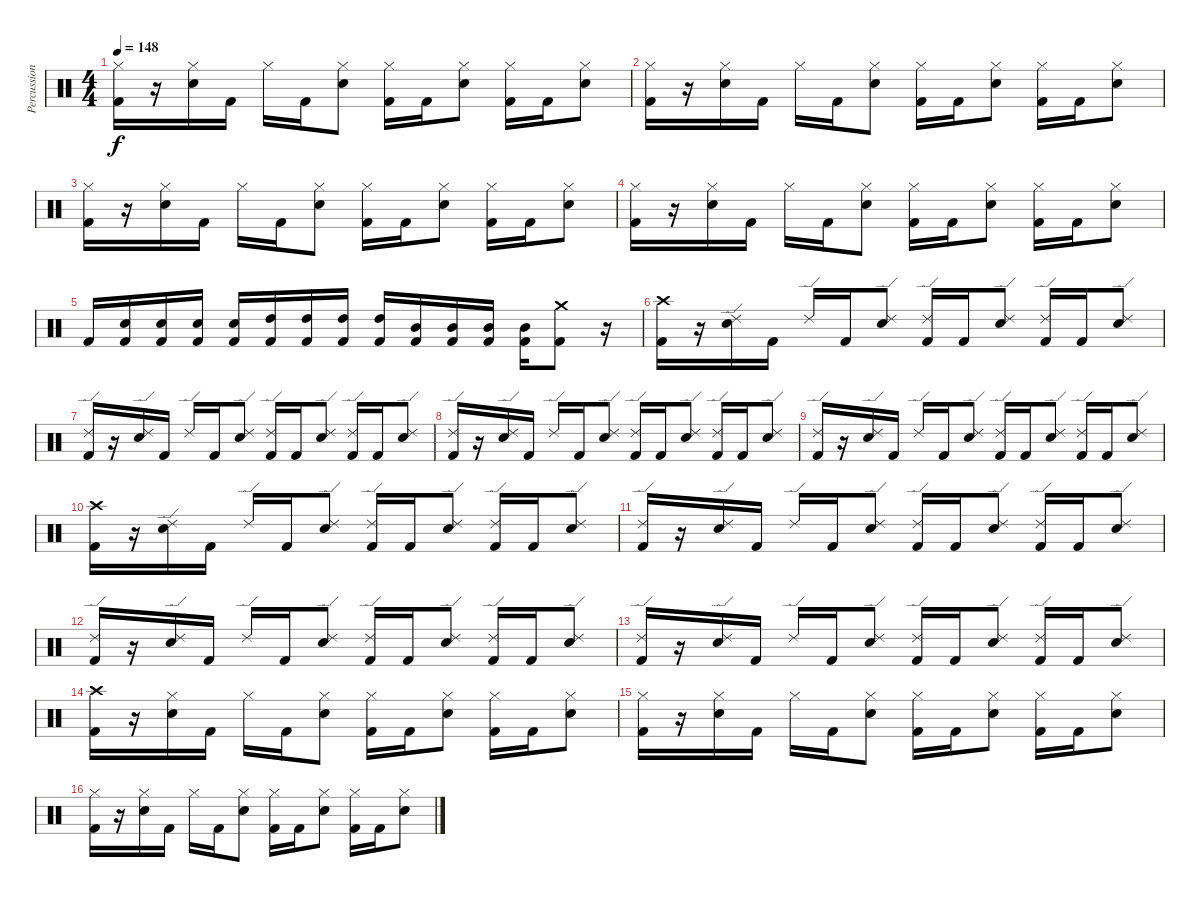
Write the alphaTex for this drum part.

\track ("Percussion" "Percussion") {instrument percussion}
\staff {score}
\articulation defaults
\ts (4 4)
\tempo 148
\clef neutral
\ks c
("Hi-Hat (closed)" "Kick (hit) 2").16{dy f} r.16 ("Hi-Hat (closed)" "Snare (hit) 2").16 "Kick (hit) 2".16 "Hi-Hat (closed)".16 "Kick (hit) 2".16 ("Hi-Hat (closed)" "Snare (hit) 2").8 ("Hi-Hat (closed)" "Kick (hit) 2").16 "Kick (hit) 2".16 ("Hi-Hat (closed)" "Snare (hit) 2").8 ("Hi-Hat (closed)" "Kick (hit) 2").16 "Kick (hit) 2".16 ("Hi-Hat (closed)" "Snare (hit) 2").8 |
("Hi-Hat (closed)" "Kick (hit) 2").16 r.16 ("Hi-Hat (closed)" "Snare (hit) 2").16 "Kick (hit) 2".16 "Hi-Hat (closed)".16 "Kick (hit) 2".16 ("Hi-Hat (closed)" "Snare (hit) 2").8 ("Hi-Hat (closed)" "Kick (hit) 2").16 "Kick (hit) 2".16 ("Hi-Hat (closed)" "Snare (hit) 2").8 ("Hi-Hat (closed)" "Kick (hit) 2").16 "Kick (hit) 2".16 ("Hi-Hat (closed)" "Snare (hit) 2").8 |
("Hi-Hat (closed)" "Kick (hit) 2").16 r.16 ("Hi-Hat (closed)" "Snare (hit) 2").16 "Kick (hit) 2".16 "Hi-Hat (closed)".16 "Kick (hit) 2".16 ("Hi-Hat (closed)" "Snare (hit) 2").8 ("Hi-Hat (closed)" "Kick (hit) 2").16 "Kick (hit) 2".16 ("Hi-Hat (closed)" "Snare (hit) 2").8 ("Hi-Hat (closed)" "Kick (hit) 2").16 "Kick (hit) 2".16 ("Hi-Hat (closed)" "Snare (hit) 2").8 |
("Hi-Hat (closed)" "Kick (hit) 2").16 r.16 ("Hi-Hat (closed)" "Snare (hit) 2").16 "Kick (hit) 2".16 "Hi-Hat (closed)".16 "Kick (hit) 2".16 ("Hi-Hat (closed)" "Snare (hit) 2").8 ("Hi-Hat (closed)" "Kick (hit) 2").16 "Kick (hit) 2".16 ("Hi-Hat (closed)" "Snare (hit) 2").8 ("Hi-Hat (closed)" "Kick (hit) 2").16 "Kick (hit) 2".16 ("Hi-Hat (closed)" "Snare (hit) 2").8 |
"Kick (hit) 2".16 ("Snare (hit) 2" "Kick (hit) 2").16 ("Snare (hit) 2" "Kick (hit) 2").16 ("Snare (hit) 2" "Kick (hit) 2").16 ("Snare (hit) 2" "Kick (hit) 2").16 ("High Tom (hit)" "Kick (hit) 2").16 ("High Tom (hit)" "Kick (hit) 2").16 ("High Tom (hit)" "Kick (hit) 2").16 ("High Tom (hit)" "Kick (hit) 2").16 ("Mid Tom (hit)" "Kick (hit) 2").16 ("Mid Tom (hit)" "Kick (hit) 2").16 ("Mid Tom (hit)" "Kick (hit) 2").16 ("Mid Tom (hit)" "Kick (hit) 2").16 ("Crash medium (hit)" "Kick (hit) 2").8 r.16 |
("Crash high (hit)" "Kick (hit) 2").16 r.16 ("Ride (edge) 2" "Snare (hit) 2").16 "Kick (hit) 2".16 "Ride (edge) 2".16 "Kick (hit) 2".16 ("Ride (edge) 2" "Snare (hit) 2").8 ("Ride (edge) 2" "Kick (hit) 2").16 "Kick (hit) 2".16 ("Ride (edge) 2" "Snare (hit) 2").8 ("Ride (edge) 2" "Kick (hit) 2").16 "Kick (hit) 2".16 ("Ride (edge) 2" "Snare (hit) 2").8 |
("Ride (edge) 2" "Kick (hit) 2").16 r.16 ("Ride (edge) 2" "Snare (hit) 2").16 "Kick (hit) 2".16 "Ride (edge) 2".16 "Kick (hit) 2".16 ("Ride (edge) 2" "Snare (hit) 2").8 ("Ride (edge) 2" "Kick (hit) 2").16 "Kick (hit) 2".16 ("Ride (edge) 2" "Snare (hit) 2").8 ("Ride (edge) 2" "Kick (hit) 2").16 "Kick (hit) 2".16 ("Ride (edge) 2" "Snare (hit) 2").8 |
("Ride (edge) 2" "Kick (hit) 2").16 r.16 ("Ride (edge) 2" "Snare (hit) 2").16 "Kick (hit) 2".16 "Ride (edge) 2".16 "Kick (hit) 2".16 ("Ride (edge) 2" "Snare (hit) 2").8 ("Ride (edge) 2" "Kick (hit) 2").16 "Kick (hit) 2".16 ("Ride (edge) 2" "Snare (hit) 2").8 ("Ride (edge) 2" "Kick (hit) 2").16 "Kick (hit) 2".16 ("Ride (edge) 2" "Snare (hit) 2").8 |
("Ride (edge) 2" "Kick (hit) 2").16 r.16 ("Ride (edge) 2" "Snare (hit) 2").16 "Kick (hit) 2".16 "Ride (edge) 2".16 "Kick (hit) 2".16 ("Ride (edge) 2" "Snare (hit) 2").8 ("Ride (edge) 2" "Kick (hit) 2").16 "Kick (hit) 2".16 ("Ride (edge) 2" "Snare (hit) 2").8 ("Ride (edge) 2" "Kick (hit) 2").16 "Kick (hit) 2".16 ("Ride (edge) 2" "Snare (hit) 2").8 |
("Crash high (hit)" "Kick (hit) 2").16 r.16 ("Ride (edge) 2" "Snare (hit) 2").16 "Kick (hit) 2".16 "Ride (edge) 2".16 "Kick (hit) 2".16 ("Ride (edge) 2" "Snare (hit) 2").8 ("Ride (edge) 2" "Kick (hit) 2").16 "Kick (hit) 2".16 ("Ride (edge) 2" "Snare (hit) 2").8 ("Ride (edge) 2" "Kick (hit) 2").16 "Kick (hit) 2".16 ("Ride (edge) 2" "Snare (hit) 2").8 |
("Ride (edge) 2" "Kick (hit) 2").16 r.16 ("Ride (edge) 2" "Snare (hit) 2").16 "Kick (hit) 2".16 "Ride (edge) 2".16 "Kick (hit) 2".16 ("Ride (edge) 2" "Snare (hit) 2").8 ("Ride (edge) 2" "Kick (hit) 2").16 "Kick (hit) 2".16 ("Ride (edge) 2" "Snare (hit) 2").8 ("Ride (edge) 2" "Kick (hit) 2").16 "Kick (hit) 2".16 ("Ride (edge) 2" "Snare (hit) 2").8 |
("Ride (edge) 2" "Kick (hit) 2").16 r.16 ("Ride (edge) 2" "Snare (hit) 2").16 "Kick (hit) 2".16 "Ride (edge) 2".16 "Kick (hit) 2".16 ("Ride (edge) 2" "Snare (hit) 2").8 ("Ride (edge) 2" "Kick (hit) 2").16 "Kick (hit) 2".16 ("Ride (edge) 2" "Snare (hit) 2").8 ("Ride (edge) 2" "Kick (hit) 2").16 "Kick (hit) 2".16 ("Ride (edge) 2" "Snare (hit) 2").8 |
("Ride (edge) 2" "Kick (hit) 2").16 r.16 ("Ride (edge) 2" "Snare (hit) 2").16 "Kick (hit) 2".16 "Ride (edge) 2".16 "Kick (hit) 2".16 ("Ride (edge) 2" "Snare (hit) 2").8 ("Ride (edge) 2" "Kick (hit) 2").16 "Kick (hit) 2".16 ("Ride (edge) 2" "Snare (hit) 2").8 ("Ride (edge) 2" "Kick (hit) 2").16 "Kick (hit) 2".16 ("Ride (edge) 2" "Snare (hit) 2").8 |
("Crash high (hit)" "Kick (hit) 2").16 r.16 ("Hi-Hat (closed)" "Snare (hit) 2").16 "Kick (hit) 2".16 "Hi-Hat (closed)".16 "Kick (hit) 2".16 ("Hi-Hat (closed)" "Snare (hit) 2").8 ("Hi-Hat (closed)" "Kick (hit) 2").16 "Kick (hit) 2".16 ("Hi-Hat (closed)" "Snare (hit) 2").8 ("Hi-Hat (closed)" "Kick (hit) 2").16 "Kick (hit) 2".16 ("Hi-Hat (closed)" "Snare (hit) 2").8 |
("Hi-Hat (closed)" "Kick (hit) 2").16 r.16 ("Hi-Hat (closed)" "Snare (hit) 2").16 "Kick (hit) 2".16 "Hi-Hat (closed)".16 "Kick (hit) 2".16 ("Hi-Hat (closed)" "Snare (hit) 2").8 ("Hi-Hat (closed)" "Kick (hit) 2").16 "Kick (hit) 2".16 ("Hi-Hat (closed)" "Snare (hit) 2").8 ("Hi-Hat (closed)" "Kick (hit) 2").16 "Kick (hit) 2".16 ("Hi-Hat (closed)" "Snare (hit) 2").8 |
("Hi-Hat (closed)" "Kick (hit) 2").16 r.16 ("Hi-Hat (closed)" "Snare (hit) 2").16 "Kick (hit) 2".16 "Hi-Hat (closed)".16 "Kick (hit) 2".16 ("Hi-Hat (closed)" "Snare (hit) 2").8 ("Hi-Hat (closed)" "Kick (hit) 2").16 "Kick (hit) 2".16 ("Hi-Hat (closed)" "Snare (hit) 2").8 ("Hi-Hat (closed)" "Kick (hit) 2").16 "Kick (hit) 2".16 ("Hi-Hat (closed)" "Snare (hit) 2").8
